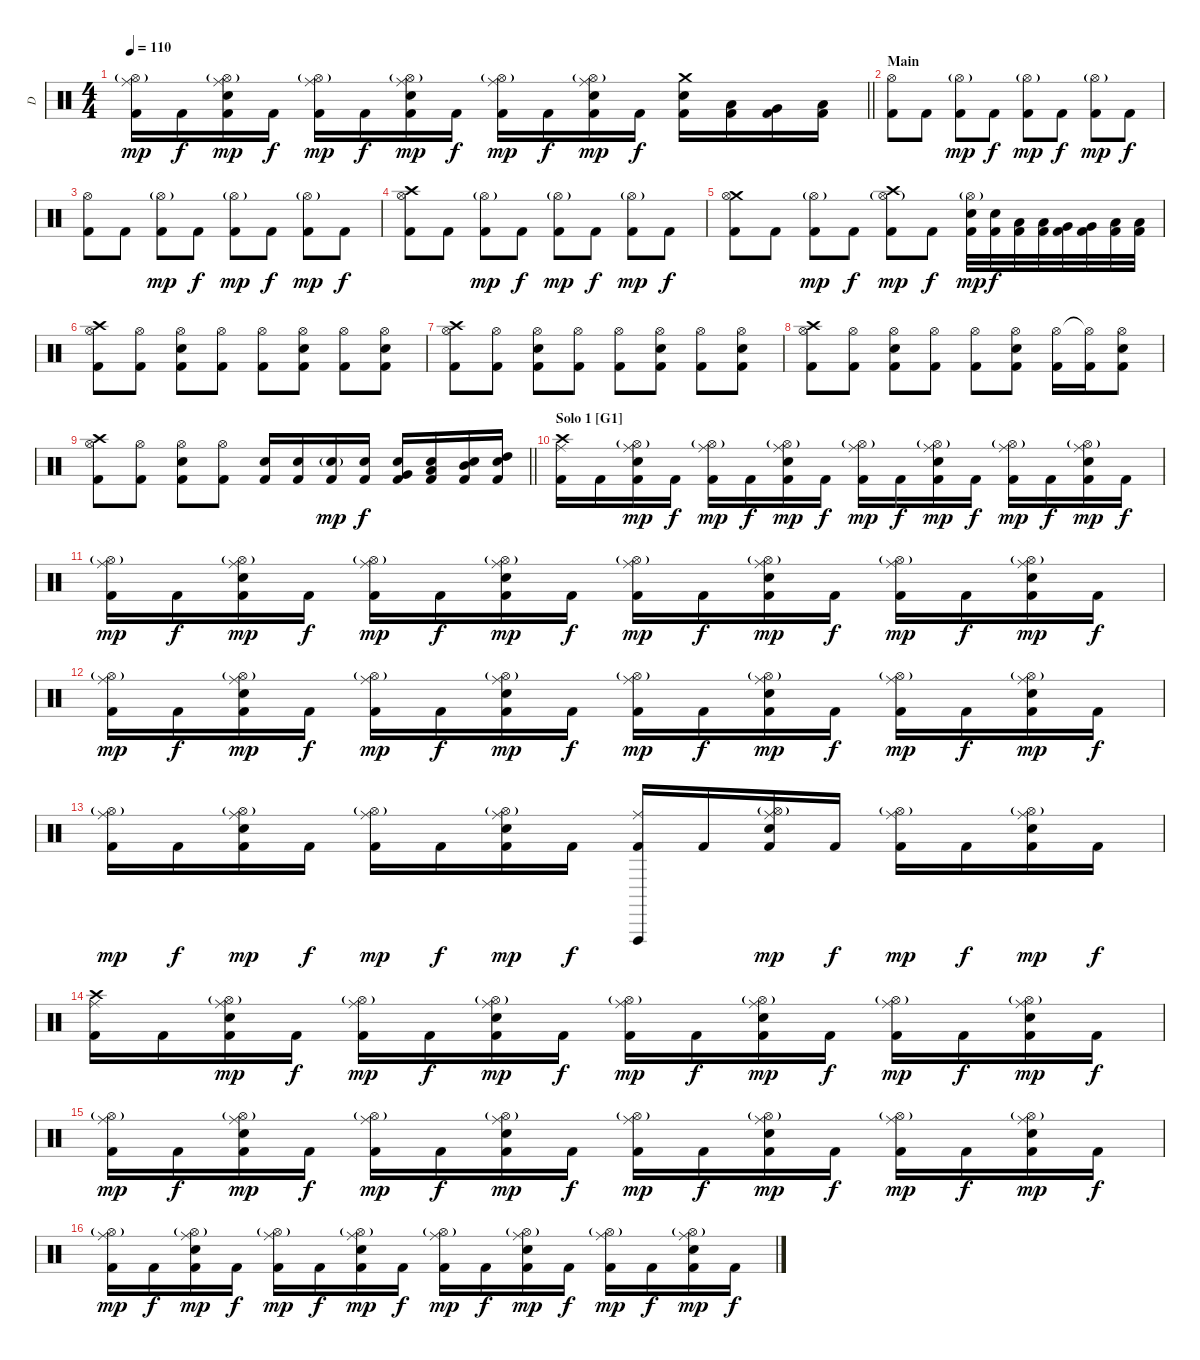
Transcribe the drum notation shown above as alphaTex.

\track ("D" "D") {instrument percussion}
\staff {score}
\articulation defaults
\ts (4 4)
\tempo 110
\clef neutral
\barLineRight lightlight
\ks c
("Ride (middle)" "Hi-Hat (open)"{g} "Kick (hit) 2").16{dy mp} "Kick (hit) 2".16{dy f} ("Ride (middle)" "Hi-Hat (open)"{g} "Electric Snare (hit)" "Kick (hit) 2").16{dy mp} "Kick (hit) 2".16{dy f} ("Ride (middle)" "Hi-Hat (open)"{g} "Kick (hit) 2").16{dy mp} "Kick (hit) 2".16{dy f} ("Ride (middle)" "Hi-Hat (open)"{g} "Electric Snare (hit)" "Kick (hit) 2").16{dy mp} "Kick (hit) 2".16{dy f} ("Ride (middle)" "Hi-Hat (open)"{g} "Kick (hit) 2").16{dy mp} "Kick (hit) 2".16{dy f} ("Ride (middle)" "Hi-Hat (open)"{g} "Electric Snare (hit)" "Kick (hit) 2").16{dy mp} "Kick (hit) 2".16{dy f} ("Crash medium (hit)" "Electric Snare (hit)" "Kick (hit) 2").16 ("Low Tom (hit)" "Kick (hit) 2").16 ("Very Low Tom (hit)" "Kick (hit) 2").16 ("Low Floor Tom (hit)" "Kick (hit) 2").16 |
\section ("" "Main")
("Hi-Hat (open)" "Kick (hit) 2").8 "Kick (hit) 2".8 ("Hi-Hat (open)"{g} "Kick (hit) 2").8{dy mp} "Kick (hit) 2".8{dy f} ("Hi-Hat (open)"{g} "Kick (hit) 2").8{dy mp} "Kick (hit) 2".8{dy f} ("Hi-Hat (open)"{g} "Kick (hit) 2").8{dy mp} "Kick (hit) 2".8{dy f} |
("Hi-Hat (open)" "Kick (hit) 2").8 "Kick (hit) 2".8 ("Hi-Hat (open)"{g} "Kick (hit) 2").8{dy mp} "Kick (hit) 2".8{dy f} ("Hi-Hat (open)"{g} "Kick (hit) 2").8{dy mp} "Kick (hit) 2".8{dy f} ("Hi-Hat (open)"{g} "Kick (hit) 2").8{dy mp} "Kick (hit) 2".8{dy f} |
("Crash high (hit)" "Hi-Hat (open)" "Kick (hit) 2").8 "Kick (hit) 2".8 ("Hi-Hat (open)"{g} "Kick (hit) 2").8{dy mp} "Kick (hit) 2".8{dy f} ("Hi-Hat (open)"{g} "Kick (hit) 2").8{dy mp} "Kick (hit) 2".8{dy f} ("Hi-Hat (open)"{g} "Kick (hit) 2").8{dy mp} "Kick (hit) 2".8{dy f} |
("Crash medium (hit)" "Hi-Hat (open)" "Kick (hit) 2").8 "Kick (hit) 2".8 ("Hi-Hat (open)"{g} "Kick (hit) 2").8{dy mp} "Kick (hit) 2".8{dy f} ("Crash high (hit)" "Hi-Hat (open)"{g} "Kick (hit) 2").8{dy mp} "Kick (hit) 2".8{dy f} ("Hi-Hat (open)"{g} "Electric Snare (hit)" "Kick (hit) 2").32{dy mp} ("Electric Snare (hit)" "Kick (hit) 2").32{dy f} ("Low Tom (hit)" "Kick (hit) 2").32 ("Low Tom (hit)" "Kick (hit) 2").32 ("Very Low Tom (hit)" "Kick (hit) 2").32 ("Very Low Tom (hit)" "Kick (hit) 2").32 ("Low Floor Tom (hit)" "Kick (hit) 2").32 ("Low Floor Tom (hit)" "Kick (hit) 2").32 |
("Crash high (hit)" "Hi-Hat (open)" "Kick (hit) 2").8 ("Hi-Hat (open)" "Kick (hit) 2").8 ("Hi-Hat (open)" "Electric Snare (hit)" "Kick (hit) 2").8 ("Hi-Hat (open)" "Kick (hit) 2").8 ("Hi-Hat (open)" "Kick (hit) 2").8 ("Hi-Hat (open)" "Electric Snare (hit)" "Kick (hit) 2").8 ("Hi-Hat (open)" "Kick (hit) 2").8 ("Hi-Hat (open)" "Electric Snare (hit)" "Kick (hit) 2").8 |
("Crash high (hit)" "Hi-Hat (open)" "Kick (hit) 2").8 ("Hi-Hat (open)" "Kick (hit) 2").8 ("Hi-Hat (open)" "Electric Snare (hit)" "Kick (hit) 2").8 ("Hi-Hat (open)" "Kick (hit) 2").8 ("Hi-Hat (open)" "Kick (hit) 2").8 ("Hi-Hat (open)" "Electric Snare (hit)" "Kick (hit) 2").8 ("Hi-Hat (open)" "Kick (hit) 2").8 ("Hi-Hat (open)" "Electric Snare (hit)" "Kick (hit) 2").8 |
("Crash high (hit)" "Hi-Hat (open)" "Kick (hit) 2").8 ("Hi-Hat (open)" "Kick (hit) 2").8 ("Hi-Hat (open)" "Electric Snare (hit)" "Kick (hit) 2").8 ("Hi-Hat (open)" "Kick (hit) 2").8 ("Hi-Hat (open)" "Kick (hit) 2").8 ("Hi-Hat (open)" "Electric Snare (hit)" "Kick (hit) 2").8 ("Hi-Hat (open)" "Kick (hit) 2").16 ("Hi-Hat (open)"{t} "Kick (hit) 2").16 ("Hi-Hat (open)" "Electric Snare (hit)" "Kick (hit) 2").8 |
\barLineRight lightlight
("Crash high (hit)" "Hi-Hat (open)" "Kick (hit) 2").8 ("Hi-Hat (open)" "Kick (hit) 2").8 ("Hi-Hat (open)" "Electric Snare (hit)" "Kick (hit) 2").8 ("Hi-Hat (open)" "Kick (hit) 2").8 ("Electric Snare (hit)" "Kick (hit) 2").16 ("Electric Snare (hit)" "Kick (hit) 2").16 ("Electric Snare (hit)"{g} "Kick (hit) 2").16{dy mp} ("Electric Snare (hit)" "Kick (hit) 2").16{dy f} ("Very Low Tom (hit)" "Electric Snare (hit)" "Kick (hit) 2").16 ("Low Tom (hit)" "Electric Snare (hit)" "Kick (hit) 2").16 ("Mid Tom (hit)" "Electric Snare (hit)" "Kick (hit) 2").16 ("High Tom (hit)" "Electric Snare (hit)" "Kick (hit) 2").16 |
\section ("" "Solo 1 [G1]")
("Crash high (hit)" "Ride (middle)" "Kick (hit) 2").16 "Kick (hit) 2".16 ("Ride (middle)" "Hi-Hat (open)"{g} "Electric Snare (hit)" "Kick (hit) 2").16{dy mp} "Kick (hit) 2".16{dy f} ("Ride (middle)" "Hi-Hat (open)"{g} "Kick (hit) 2").16{dy mp} "Kick (hit) 2".16{dy f} ("Ride (middle)" "Hi-Hat (open)"{g} "Electric Snare (hit)" "Kick (hit) 2").16{dy mp} "Kick (hit) 2".16{dy f} ("Ride (middle)" "Hi-Hat (open)"{g} "Kick (hit) 2").16{dy mp} "Kick (hit) 2".16{dy f} ("Ride (middle)" "Hi-Hat (open)"{g} "Electric Snare (hit)" "Kick (hit) 2").16{dy mp} "Kick (hit) 2".16{dy f} ("Ride (middle)" "Hi-Hat (open)"{g} "Kick (hit) 2").16{dy mp} "Kick (hit) 2".16{dy f} ("Ride (middle)" "Hi-Hat (open)"{g} "Electric Snare (hit)" "Kick (hit) 2").16{dy mp} "Kick (hit) 2".16{dy f} |
("Ride (middle)" "Hi-Hat (open)"{g} "Kick (hit) 2").16{dy mp} "Kick (hit) 2".16{dy f} ("Ride (middle)" "Hi-Hat (open)"{g} "Electric Snare (hit)" "Kick (hit) 2").16{dy mp} "Kick (hit) 2".16{dy f} ("Ride (middle)" "Hi-Hat (open)"{g} "Kick (hit) 2").16{dy mp} "Kick (hit) 2".16{dy f} ("Ride (middle)" "Hi-Hat (open)"{g} "Electric Snare (hit)" "Kick (hit) 2").16{dy mp} "Kick (hit) 2".16{dy f} ("Ride (middle)" "Hi-Hat (open)"{g} "Kick (hit) 2").16{dy mp} "Kick (hit) 2".16{dy f} ("Ride (middle)" "Hi-Hat (open)"{g} "Electric Snare (hit)" "Kick (hit) 2").16{dy mp} "Kick (hit) 2".16{dy f} ("Ride (middle)" "Hi-Hat (open)"{g} "Kick (hit) 2").16{dy mp} "Kick (hit) 2".16{dy f} ("Ride (middle)" "Hi-Hat (open)"{g} "Electric Snare (hit)" "Kick (hit) 2").16{dy mp} "Kick (hit) 2".16{dy f} |
("Ride (middle)" "Hi-Hat (open)"{g} "Kick (hit) 2").16{dy mp} "Kick (hit) 2".16{dy f} ("Ride (middle)" "Hi-Hat (open)"{g} "Electric Snare (hit)" "Kick (hit) 2").16{dy mp} "Kick (hit) 2".16{dy f} ("Ride (middle)" "Hi-Hat (open)"{g} "Kick (hit) 2").16{dy mp} "Kick (hit) 2".16{dy f} ("Ride (middle)" "Hi-Hat (open)"{g} "Electric Snare (hit)" "Kick (hit) 2").16{dy mp} "Kick (hit) 2".16{dy f} ("Ride (middle)" "Hi-Hat (open)"{g} "Kick (hit) 2").16{dy mp} "Kick (hit) 2".16{dy f} ("Ride (middle)" "Hi-Hat (open)"{g} "Electric Snare (hit)" "Kick (hit) 2").16{dy mp} "Kick (hit) 2".16{dy f} ("Ride (middle)" "Hi-Hat (open)"{g} "Kick (hit) 2").16{dy mp} "Kick (hit) 2".16{dy f} ("Ride (middle)" "Hi-Hat (open)"{g} "Electric Snare (hit)" "Kick (hit) 2").16{dy mp} "Kick (hit) 2".16{dy f} |
("Ride (middle)" "Hi-Hat (open)"{g} "Kick (hit) 2").16{dy mp} "Kick (hit) 2".16{dy f} ("Ride (middle)" "Hi-Hat (open)"{g} "Electric Snare (hit)" "Kick (hit) 2").16{dy mp} "Kick (hit) 2".16{dy f} ("Ride (middle)" "Hi-Hat (open)"{g} "Kick (hit) 2").16{dy mp} "Kick (hit) 2".16{dy f} ("Ride (middle)" "Hi-Hat (open)"{g} "Electric Snare (hit)" "Kick (hit) 2").16{dy mp} "Kick (hit) 2".16{dy f} ("Ride (middle)" "Vibraslap (hit)" "Kick (hit) 2").16 "Kick (hit) 2".16 ("Ride (middle)" "Hi-Hat (open)"{g} "Electric Snare (hit)" "Kick (hit) 2").16{dy mp} "Kick (hit) 2".16{dy f} ("Ride (middle)" "Hi-Hat (open)"{g} "Kick (hit) 2").16{dy mp} "Kick (hit) 2".16{dy f} ("Ride (middle)" "Hi-Hat (open)"{g} "Electric Snare (hit)" "Kick (hit) 2").16{dy mp} "Kick (hit) 2".16{dy f} |
("Crash high (hit)" "Ride (middle)" "Kick (hit) 2").16 "Kick (hit) 2".16 ("Ride (middle)" "Hi-Hat (open)"{g} "Electric Snare (hit)" "Kick (hit) 2").16{dy mp} "Kick (hit) 2".16{dy f} ("Ride (middle)" "Hi-Hat (open)"{g} "Kick (hit) 2").16{dy mp} "Kick (hit) 2".16{dy f} ("Ride (middle)" "Hi-Hat (open)"{g} "Electric Snare (hit)" "Kick (hit) 2").16{dy mp} "Kick (hit) 2".16{dy f} ("Ride (middle)" "Hi-Hat (open)"{g} "Kick (hit) 2").16{dy mp} "Kick (hit) 2".16{dy f} ("Ride (middle)" "Hi-Hat (open)"{g} "Electric Snare (hit)" "Kick (hit) 2").16{dy mp} "Kick (hit) 2".16{dy f} ("Ride (middle)" "Hi-Hat (open)"{g} "Kick (hit) 2").16{dy mp} "Kick (hit) 2".16{dy f} ("Ride (middle)" "Hi-Hat (open)"{g} "Electric Snare (hit)" "Kick (hit) 2").16{dy mp} "Kick (hit) 2".16{dy f} |
("Ride (middle)" "Hi-Hat (open)"{g} "Kick (hit) 2").16{dy mp} "Kick (hit) 2".16{dy f} ("Ride (middle)" "Hi-Hat (open)"{g} "Electric Snare (hit)" "Kick (hit) 2").16{dy mp} "Kick (hit) 2".16{dy f} ("Ride (middle)" "Hi-Hat (open)"{g} "Kick (hit) 2").16{dy mp} "Kick (hit) 2".16{dy f} ("Ride (middle)" "Hi-Hat (open)"{g} "Electric Snare (hit)" "Kick (hit) 2").16{dy mp} "Kick (hit) 2".16{dy f} ("Ride (middle)" "Hi-Hat (open)"{g} "Kick (hit) 2").16{dy mp} "Kick (hit) 2".16{dy f} ("Ride (middle)" "Hi-Hat (open)"{g} "Electric Snare (hit)" "Kick (hit) 2").16{dy mp} "Kick (hit) 2".16{dy f} ("Ride (middle)" "Hi-Hat (open)"{g} "Kick (hit) 2").16{dy mp} "Kick (hit) 2".16{dy f} ("Ride (middle)" "Hi-Hat (open)"{g} "Electric Snare (hit)" "Kick (hit) 2").16{dy mp} "Kick (hit) 2".16{dy f} |
("Ride (middle)" "Hi-Hat (open)"{g} "Kick (hit) 2").16{dy mp} "Kick (hit) 2".16{dy f} ("Ride (middle)" "Hi-Hat (open)"{g} "Electric Snare (hit)" "Kick (hit) 2").16{dy mp} "Kick (hit) 2".16{dy f} ("Ride (middle)" "Hi-Hat (open)"{g} "Kick (hit) 2").16{dy mp} "Kick (hit) 2".16{dy f} ("Ride (middle)" "Hi-Hat (open)"{g} "Electric Snare (hit)" "Kick (hit) 2").16{dy mp} "Kick (hit) 2".16{dy f} ("Ride (middle)" "Hi-Hat (open)"{g} "Kick (hit) 2").16{dy mp} "Kick (hit) 2".16{dy f} ("Ride (middle)" "Hi-Hat (open)"{g} "Electric Snare (hit)" "Kick (hit) 2").16{dy mp} "Kick (hit) 2".16{dy f} ("Ride (middle)" "Hi-Hat (open)"{g} "Kick (hit) 2").16{dy mp} "Kick (hit) 2".16{dy f} ("Ride (middle)" "Hi-Hat (open)"{g} "Electric Snare (hit)" "Kick (hit) 2").16{dy mp} "Kick (hit) 2".16{dy f}
